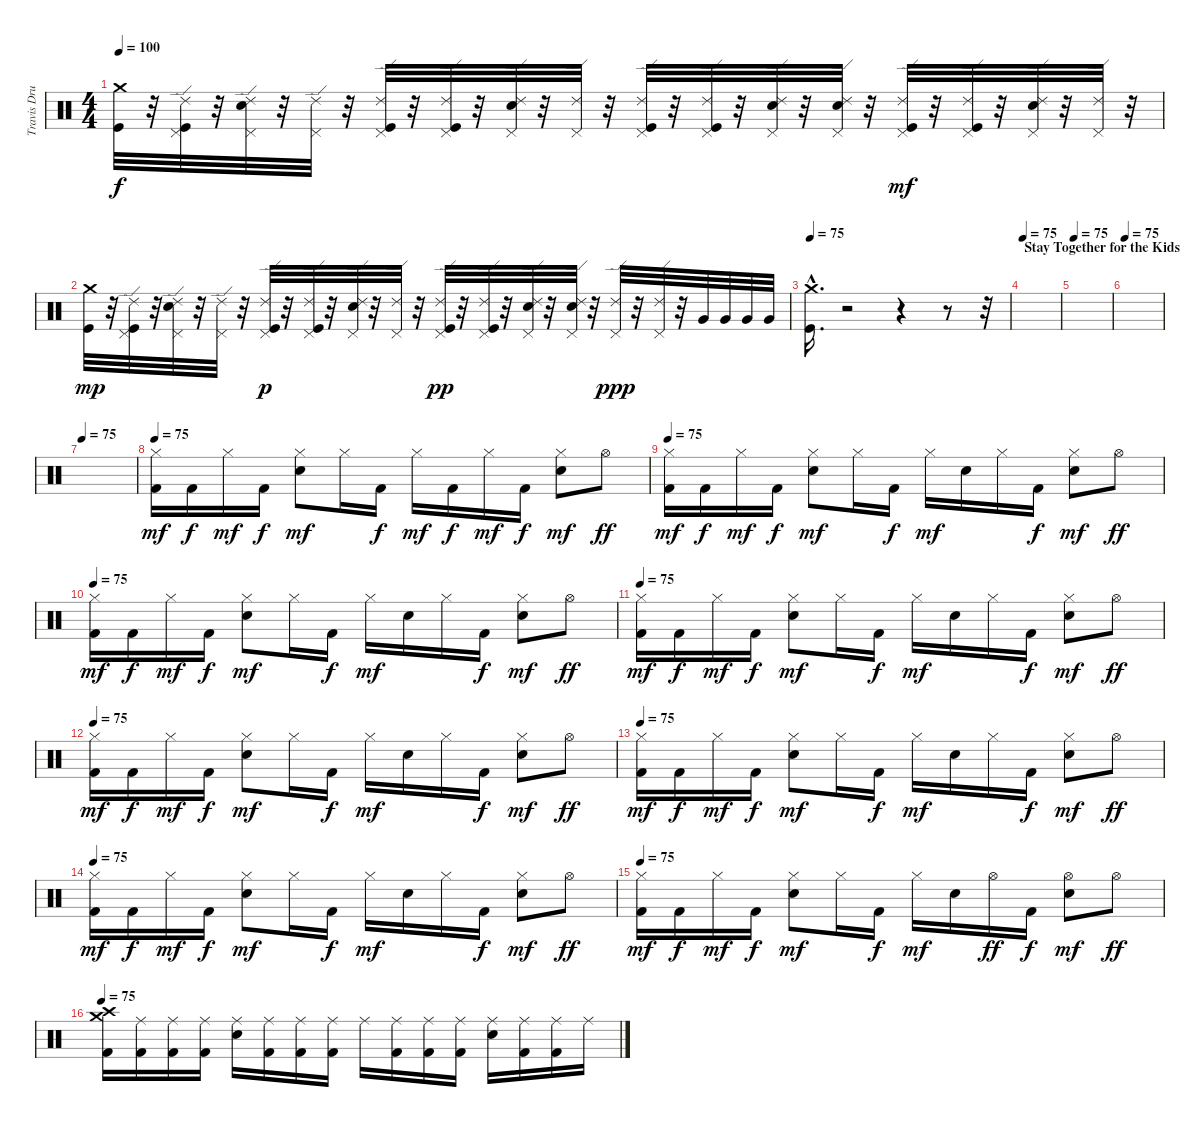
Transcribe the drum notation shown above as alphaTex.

\track ("Travis Drums" "Travis Dru") {instrument percussion}
\staff {score}
\articulation defaults
\ts (4 4)
\tempo 100
\clef neutral
\ks c
("Crash medium (hit)" "Kick (hit)").32{dy f} r.32 ("Pedal Hi-Hat (hit)" "Ride (edge) 2" "Kick (hit)").32 r.32 ("Pedal Hi-Hat (hit)" "Ride (edge) 2" "Snare (hit) 2").32 r.32 ("Pedal Hi-Hat (hit)" "Ride (edge) 2").32 r.32 ("Kick (hit)" "Pedal Hi-Hat (hit)" "Ride (edge) 2").32 r.32 ("Kick (hit)" "Pedal Hi-Hat (hit)" "Ride (edge) 2").32 r.32 ("Snare (hit) 2" "Pedal Hi-Hat (hit)" "Ride (edge) 2").32 r.32 ("Pedal Hi-Hat (hit)" "Ride (edge) 2").32 r.32 ("Kick (hit)" "Pedal Hi-Hat (hit)" "Ride (edge) 2").32 r.32 ("Kick (hit)" "Pedal Hi-Hat (hit)" "Ride (edge) 2").32 r.32 ("Snare (hit) 2" "Pedal Hi-Hat (hit)" "Ride (edge) 2").32 r.32 ("Snare (hit) 2" "Pedal Hi-Hat (hit)" "Ride (edge) 2").32 r.32 ("Kick (hit)" "Pedal Hi-Hat (hit)" "Ride (edge) 2").32{dy mf} r.32 ("Kick (hit)" "Pedal Hi-Hat (hit)" "Ride (edge) 2").32 r.32 ("Snare (hit) 2" "Pedal Hi-Hat (hit)" "Ride (edge) 2").32 r.32 ("Pedal Hi-Hat (hit)" "Ride (edge) 2").32 r.32 |
("Crash medium (hit)" "Kick (hit)").32{dy mp} r.32 ("Pedal Hi-Hat (hit)" "Ride (edge) 2" "Kick (hit)").32 r.32 ("Pedal Hi-Hat (hit)" "Ride (edge) 2" "Snare (hit) 2").32 r.32 ("Pedal Hi-Hat (hit)" "Ride (edge) 2").32 r.32 ("Kick (hit)" "Pedal Hi-Hat (hit)" "Ride (edge) 2").32{dy p} r.32 ("Kick (hit)" "Pedal Hi-Hat (hit)" "Ride (edge) 2").32 r.32 ("Snare (hit) 2" "Pedal Hi-Hat (hit)" "Ride (edge) 2").32 r.32 ("Pedal Hi-Hat (hit)" "Ride (edge) 2").32 r.32 ("Kick (hit)" "Pedal Hi-Hat (hit)" "Ride (edge) 2").32{dy pp} r.32 ("Kick (hit)" "Pedal Hi-Hat (hit)" "Ride (edge) 2").32 r.32 ("Snare (hit) 2" "Pedal Hi-Hat (hit)" "Ride (edge) 2").32 r.32 ("Snare (hit) 2" "Pedal Hi-Hat (hit)" "Ride (edge) 2").32 r.32 ("Pedal Hi-Hat (hit)" "Ride (edge) 2").32{dy ppp} r.32 ("Pedal Hi-Hat (hit)" "Ride (edge) 2").32 r.32 "Very Low Tom (hit)".32 "Very Low Tom (hit)".32 "Very Low Tom (hit)".32 "Very Low Tom (hit)".32 |
\tempo 75
("Kick (hit)"{hac} "Crash medium (hit)"{hac}).16{d} r.2 r.4 r.8 r.32 |
\section ("" "Stay Together for the Kids")
\tempo 75
|
\tempo 75
|
\tempo 75
|
\tempo 75
|
\tempo 75
("Hi-Hat (closed)" "Kick (hit) 2").16{dy mf} "Kick (hit) 2".16{dy f} "Hi-Hat (closed)".16{dy mf} "Kick (hit) 2".16{dy f} ("Hi-Hat (closed)" "Electric Snare (hit)").8{dy mf} "Hi-Hat (closed)".16 "Kick (hit) 2".16{dy f} "Hi-Hat (closed)".16{dy mf} "Kick (hit) 2".16{dy f} "Hi-Hat (closed)".16{dy mf} "Kick (hit) 2".16{dy f} ("Hi-Hat (closed)" "Electric Snare (hit)").8{dy mf} "Hi-Hat (open)".8{dy ff} |
\tempo 75
("Hi-Hat (closed)" "Kick (hit) 2").16{dy mf} "Kick (hit) 2".16{dy f} "Hi-Hat (closed)".16{dy mf} "Kick (hit) 2".16{dy f} ("Hi-Hat (closed)" "Electric Snare (hit)").8{dy mf} "Hi-Hat (closed)".16 "Kick (hit) 2".16{dy f} "Hi-Hat (closed)".16{dy mf} "Electric Snare (hit)".16 "Hi-Hat (closed)".16 "Kick (hit) 2".16{dy f} ("Hi-Hat (closed)" "Electric Snare (hit)").8{dy mf} "Hi-Hat (open)".8{dy ff} |
\tempo 75
("Hi-Hat (closed)" "Kick (hit) 2").16{dy mf} "Kick (hit) 2".16{dy f} "Hi-Hat (closed)".16{dy mf} "Kick (hit) 2".16{dy f} ("Hi-Hat (closed)" "Electric Snare (hit)").8{dy mf} "Hi-Hat (closed)".16 "Kick (hit) 2".16{dy f} "Hi-Hat (closed)".16{dy mf} "Electric Snare (hit)".16 "Hi-Hat (closed)".16 "Kick (hit) 2".16{dy f} ("Hi-Hat (closed)" "Electric Snare (hit)").8{dy mf} "Hi-Hat (open)".8{dy ff} |
\tempo 75
("Hi-Hat (closed)" "Kick (hit) 2").16{dy mf} "Kick (hit) 2".16{dy f} "Hi-Hat (closed)".16{dy mf} "Kick (hit) 2".16{dy f} ("Hi-Hat (closed)" "Electric Snare (hit)").8{dy mf} "Hi-Hat (closed)".16 "Kick (hit) 2".16{dy f} "Hi-Hat (closed)".16{dy mf} "Electric Snare (hit)".16 "Hi-Hat (closed)".16 "Kick (hit) 2".16{dy f} ("Hi-Hat (closed)" "Electric Snare (hit)").8{dy mf} "Hi-Hat (open)".8{dy ff} |
\tempo 75
("Hi-Hat (closed)" "Kick (hit) 2").16{dy mf} "Kick (hit) 2".16{dy f} "Hi-Hat (closed)".16{dy mf} "Kick (hit) 2".16{dy f} ("Hi-Hat (closed)" "Electric Snare (hit)").8{dy mf} "Hi-Hat (closed)".16 "Kick (hit) 2".16{dy f} "Hi-Hat (closed)".16{dy mf} "Electric Snare (hit)".16 "Hi-Hat (closed)".16 "Kick (hit) 2".16{dy f} ("Hi-Hat (closed)" "Electric Snare (hit)").8{dy mf} "Hi-Hat (open)".8{dy ff} |
\tempo 75
("Hi-Hat (closed)" "Kick (hit) 2").16{dy mf} "Kick (hit) 2".16{dy f} "Hi-Hat (closed)".16{dy mf} "Kick (hit) 2".16{dy f} ("Hi-Hat (closed)" "Electric Snare (hit)").8{dy mf} "Hi-Hat (closed)".16 "Kick (hit) 2".16{dy f} "Hi-Hat (closed)".16{dy mf} "Electric Snare (hit)".16 "Hi-Hat (closed)".16 "Kick (hit) 2".16{dy f} ("Hi-Hat (closed)" "Electric Snare (hit)").8{dy mf} "Hi-Hat (open)".8{dy ff} |
\tempo 75
("Hi-Hat (closed)" "Kick (hit) 2").16{dy mf} "Kick (hit) 2".16{dy f} "Hi-Hat (closed)".16{dy mf} "Kick (hit) 2".16{dy f} ("Hi-Hat (closed)" "Electric Snare (hit)").8{dy mf} "Hi-Hat (closed)".16 "Kick (hit) 2".16{dy f} "Hi-Hat (closed)".16{dy mf} "Electric Snare (hit)".16 "Hi-Hat (closed)".16 "Kick (hit) 2".16{dy f} ("Hi-Hat (closed)" "Electric Snare (hit)").8{dy mf} "Hi-Hat (open)".8{dy ff} |
\tempo 75
("Hi-Hat (closed)" "Kick (hit) 2").16{dy mf} "Kick (hit) 2".16{dy f} "Hi-Hat (closed)".16{dy mf} "Kick (hit) 2".16{dy f} ("Hi-Hat (closed)" "Electric Snare (hit)").8{dy mf} "Hi-Hat (closed)".16 "Kick (hit) 2".16{dy f} "Hi-Hat (closed)".16{dy mf} "Electric Snare (hit)".16 "Hi-Hat (open)".16{dy ff} "Kick (hit) 2".16{dy f} ("Hi-Hat (open)" "Electric Snare (hit)").8{dy mf} "Hi-Hat (open)".8{dy ff} |
\tempo 75
("Crash medium (hit)" "Crash high (hit)" "Kick (hit) 2").16 ("Ride (middle)" "Kick (hit) 2").16 ("Ride (middle)" "Kick (hit) 2").16 ("Ride (middle)" "Kick (hit) 2").16 ("Ride (middle)" "Electric Snare (hit)").16 ("Ride (middle)" "Kick (hit) 2").16 ("Ride (middle)" "Kick (hit) 2").16 ("Ride (middle)" "Kick (hit) 2").16 "Ride (middle)".16 ("Ride (middle)" "Kick (hit) 2").16 ("Ride (middle)" "Kick (hit) 2").16 ("Ride (middle)" "Kick (hit) 2").16 ("Ride (middle)" "Electric Snare (hit)").16 ("Ride (middle)" "Kick (hit) 2").16 ("Ride (middle)" "Kick (hit) 2").16 "Ride (middle)".16
